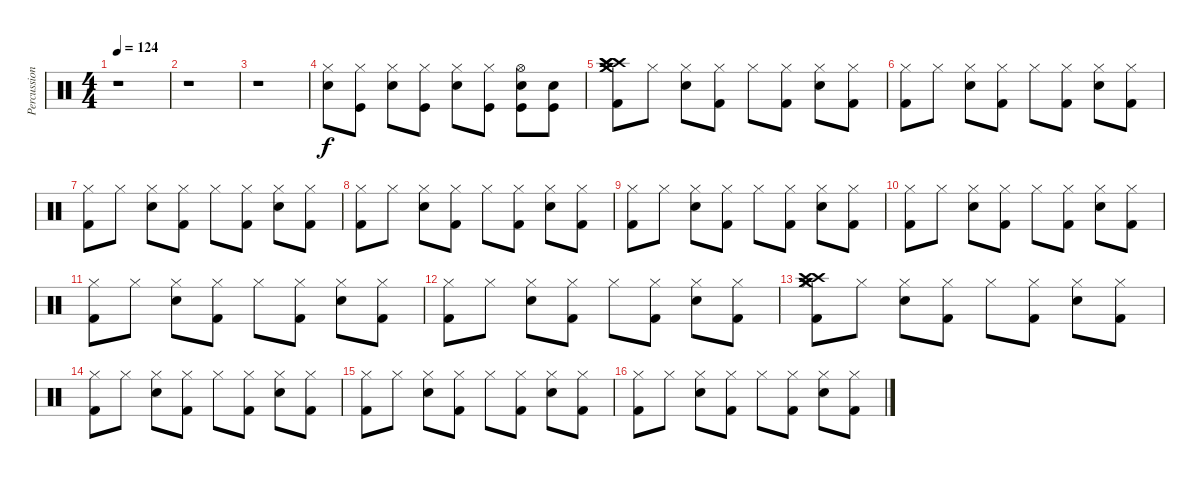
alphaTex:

\track ("Percussion" "Percussion") {instrument percussion}
\staff {score}
\articulation defaults
\ts (4 4)
\tempo 124
\clef neutral
\ks c
r.1{dy f} |
r.1 |
r.1 |
("Hi-Hat (closed)" "Snare (hit) 2").8 ("Hi-Hat (closed)" "Kick (hit)").8 ("Hi-Hat (closed)" "Snare (hit) 2").8 ("Hi-Hat (closed)" "Kick (hit)").8 ("Hi-Hat (closed)" "Snare (hit) 2").8 ("Hi-Hat (closed)" "Kick (hit)").8 ("Hi-Hat (open)" "Snare (hit) 2" "Kick (hit)").8 ("Snare (hit) 2" "Kick (hit)").8 |
("Crash high (hit)" "Crash medium (hit)" "Crash high (hit)" "Kick (hit) 2" "Crash medium (hit)" "Crash high (hit)").8 "Hi-Hat (closed)".8 ("Hi-Hat (closed)" "Snare (hit) 2").8 ("Hi-Hat (closed)" "Kick (hit) 2").8 "Hi-Hat (closed)".8 ("Hi-Hat (closed)" "Kick (hit) 2").8 ("Hi-Hat (closed)" "Snare (hit) 2").8 ("Hi-Hat (closed)" "Kick (hit) 2").8 |
("Hi-Hat (closed)" "Kick (hit) 2").8 "Hi-Hat (closed)".8 ("Hi-Hat (closed)" "Snare (hit) 2").8 ("Hi-Hat (closed)" "Kick (hit) 2").8 "Hi-Hat (closed)".8 ("Hi-Hat (closed)" "Kick (hit) 2").8 ("Hi-Hat (closed)" "Snare (hit) 2").8 ("Hi-Hat (closed)" "Kick (hit) 2").8 |
("Hi-Hat (closed)" "Kick (hit) 2").8 "Hi-Hat (closed)".8 ("Hi-Hat (closed)" "Snare (hit) 2").8 ("Hi-Hat (closed)" "Kick (hit) 2").8 "Hi-Hat (closed)".8 ("Hi-Hat (closed)" "Kick (hit) 2").8 ("Hi-Hat (closed)" "Snare (hit) 2").8 ("Hi-Hat (closed)" "Kick (hit) 2").8 |
("Hi-Hat (closed)" "Kick (hit) 2").8 "Hi-Hat (closed)".8 ("Hi-Hat (closed)" "Snare (hit) 2").8 ("Hi-Hat (closed)" "Kick (hit) 2").8 "Hi-Hat (closed)".8 ("Hi-Hat (closed)" "Kick (hit) 2").8 ("Hi-Hat (closed)" "Snare (hit) 2").8 ("Hi-Hat (closed)" "Kick (hit) 2").8 |
("Hi-Hat (closed)" "Kick (hit) 2").8 "Hi-Hat (closed)".8 ("Hi-Hat (closed)" "Snare (hit) 2").8 ("Hi-Hat (closed)" "Kick (hit) 2").8 "Hi-Hat (closed)".8 ("Hi-Hat (closed)" "Kick (hit) 2").8 ("Hi-Hat (closed)" "Snare (hit) 2").8 ("Hi-Hat (closed)" "Kick (hit) 2").8 |
("Hi-Hat (closed)" "Kick (hit) 2").8 "Hi-Hat (closed)".8 ("Hi-Hat (closed)" "Snare (hit) 2").8 ("Hi-Hat (closed)" "Kick (hit) 2").8 "Hi-Hat (closed)".8 ("Hi-Hat (closed)" "Kick (hit) 2").8 ("Hi-Hat (closed)" "Snare (hit) 2").8 ("Hi-Hat (closed)" "Kick (hit) 2").8 |
("Hi-Hat (closed)" "Kick (hit) 2").8 "Hi-Hat (closed)".8 ("Hi-Hat (closed)" "Snare (hit) 2").8 ("Hi-Hat (closed)" "Kick (hit) 2").8 "Hi-Hat (closed)".8 ("Hi-Hat (closed)" "Kick (hit) 2").8 ("Hi-Hat (closed)" "Snare (hit) 2").8 ("Hi-Hat (closed)" "Kick (hit) 2").8 |
("Hi-Hat (closed)" "Kick (hit) 2").8 "Hi-Hat (closed)".8 ("Hi-Hat (closed)" "Snare (hit) 2").8 ("Hi-Hat (closed)" "Kick (hit) 2").8 "Hi-Hat (closed)".8 ("Hi-Hat (closed)" "Kick (hit) 2").8 ("Hi-Hat (closed)" "Snare (hit) 2").8 ("Hi-Hat (closed)" "Kick (hit) 2").8 |
("Hi-Hat (closed)" "Crash high (hit)" "Crash medium (hit)" "Kick (hit) 2" "Crash medium (hit)" "Crash high (hit)").8 "Hi-Hat (closed)".8 ("Hi-Hat (closed)" "Snare (hit) 2").8 ("Hi-Hat (closed)" "Kick (hit) 2").8 "Hi-Hat (closed)".8 ("Hi-Hat (closed)" "Kick (hit) 2").8 ("Hi-Hat (closed)" "Snare (hit) 2").8 ("Hi-Hat (closed)" "Kick (hit) 2").8 |
("Hi-Hat (closed)" "Kick (hit) 2").8 "Hi-Hat (closed)".8 ("Hi-Hat (closed)" "Snare (hit) 2").8 ("Hi-Hat (closed)" "Kick (hit) 2").8 "Hi-Hat (closed)".8 ("Hi-Hat (closed)" "Kick (hit) 2").8 ("Hi-Hat (closed)" "Snare (hit) 2").8 ("Hi-Hat (closed)" "Kick (hit) 2").8 |
("Hi-Hat (closed)" "Kick (hit) 2").8 "Hi-Hat (closed)".8 ("Hi-Hat (closed)" "Snare (hit) 2").8 ("Hi-Hat (closed)" "Kick (hit) 2").8 "Hi-Hat (closed)".8 ("Hi-Hat (closed)" "Kick (hit) 2").8 ("Hi-Hat (closed)" "Snare (hit) 2").8 ("Hi-Hat (closed)" "Kick (hit) 2").8 |
("Hi-Hat (closed)" "Kick (hit) 2").8 "Hi-Hat (closed)".8 ("Hi-Hat (closed)" "Snare (hit) 2").8 ("Hi-Hat (closed)" "Kick (hit) 2").8 "Hi-Hat (closed)".8 ("Hi-Hat (closed)" "Kick (hit) 2").8 ("Hi-Hat (closed)" "Snare (hit) 2").8 ("Hi-Hat (closed)" "Kick (hit) 2").8
